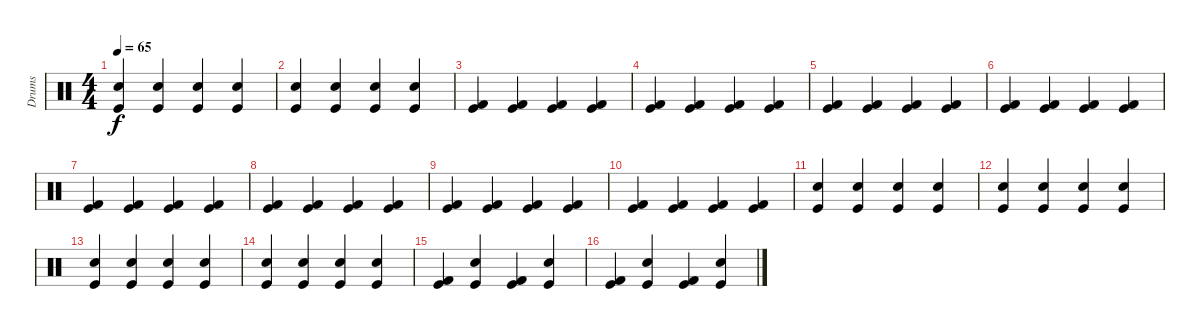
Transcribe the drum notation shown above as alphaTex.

\track ("Drums" "Drums") {instrument percussion}
\staff {score}
\articulation defaults
\ts (4 4)
\tempo 65
\clef neutral
\ks c
("Kick (hit)" "Snare (hit) 2").4{dy f} ("Kick (hit)" "Snare (hit) 2").4 ("Kick (hit)" "Snare (hit) 2").4 ("Kick (hit)" "Snare (hit) 2").4 |
("Kick (hit)" "Snare (hit) 2").4 ("Kick (hit)" "Snare (hit) 2").4 ("Kick (hit)" "Snare (hit) 2").4 ("Kick (hit)" "Snare (hit) 2").4 |
("Kick (hit)" "Kick (hit) 2").4 ("Kick (hit)" "Kick (hit) 2").4 ("Kick (hit)" "Kick (hit) 2").4 ("Kick (hit)" "Kick (hit) 2").4 |
("Kick (hit)" "Kick (hit) 2").4 ("Kick (hit)" "Kick (hit) 2").4 ("Kick (hit)" "Kick (hit) 2").4 ("Kick (hit)" "Kick (hit) 2").4 |
("Kick (hit)" "Kick (hit) 2").4 ("Kick (hit)" "Kick (hit) 2").4 ("Kick (hit)" "Kick (hit) 2").4 ("Kick (hit)" "Kick (hit) 2").4 |
("Kick (hit)" "Kick (hit) 2").4 ("Kick (hit)" "Kick (hit) 2").4 ("Kick (hit)" "Kick (hit) 2").4 ("Kick (hit)" "Kick (hit) 2").4 |
("Kick (hit)" "Kick (hit) 2").4 ("Kick (hit)" "Kick (hit) 2").4 ("Kick (hit)" "Kick (hit) 2").4 ("Kick (hit)" "Kick (hit) 2").4 |
("Kick (hit)" "Kick (hit) 2").4 ("Kick (hit)" "Kick (hit) 2").4 ("Kick (hit)" "Kick (hit) 2").4 ("Kick (hit)" "Kick (hit) 2").4 |
("Kick (hit)" "Kick (hit) 2").4 ("Kick (hit)" "Kick (hit) 2").4 ("Kick (hit)" "Kick (hit) 2").4 ("Kick (hit)" "Kick (hit) 2").4 |
("Kick (hit)" "Kick (hit) 2").4 ("Kick (hit)" "Kick (hit) 2").4 ("Kick (hit)" "Kick (hit) 2").4 ("Kick (hit)" "Kick (hit) 2").4 |
("Kick (hit)" "Snare (hit) 2").4 ("Kick (hit)" "Snare (hit) 2").4 ("Kick (hit)" "Snare (hit) 2").4 ("Kick (hit)" "Snare (hit) 2").4 |
("Kick (hit)" "Snare (hit) 2").4 ("Kick (hit)" "Snare (hit) 2").4 ("Kick (hit)" "Snare (hit) 2").4 ("Kick (hit)" "Snare (hit) 2").4 |
("Kick (hit)" "Snare (hit) 2").4 ("Kick (hit)" "Snare (hit) 2").4 ("Kick (hit)" "Snare (hit) 2").4 ("Kick (hit)" "Snare (hit) 2").4 |
("Kick (hit)" "Snare (hit) 2").4 ("Kick (hit)" "Snare (hit) 2").4 ("Kick (hit)" "Snare (hit) 2").4 ("Kick (hit)" "Snare (hit) 2").4 |
("Kick (hit)" "Kick (hit) 2").4 ("Kick (hit)" "Snare (hit) 2").4 ("Kick (hit)" "Kick (hit) 2").4 ("Kick (hit)" "Snare (hit) 2").4 |
("Kick (hit)" "Kick (hit) 2").4 ("Kick (hit)" "Snare (hit) 2").4 ("Kick (hit)" "Kick (hit) 2").4 ("Kick (hit)" "Snare (hit) 2").4
